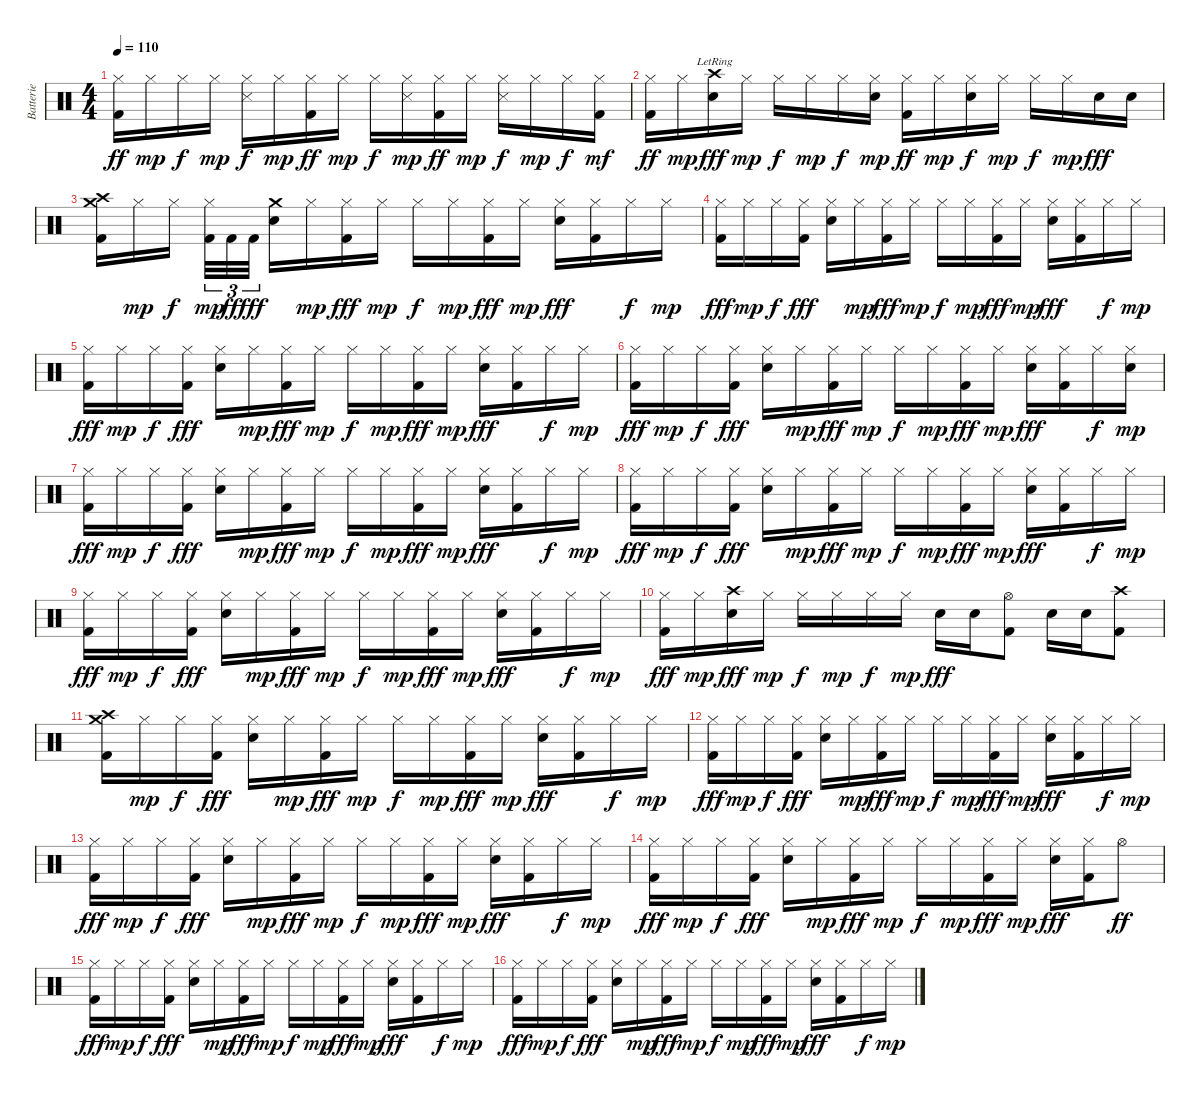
\track ("Batterie" "Batterie") {instrument percussion}
\staff {score}
\articulation defaults
\ts (4 4)
\tempo 110
\clef neutral
\ks c
("Hi-Hat (closed)" "Kick (hit) 2").16{dy ff} "Hi-Hat (closed)".16{dy mp} "Hi-Hat (closed)".16{dy f} "Hi-Hat (closed)".16{dy mp} ("Hi-Hat (closed)" "Snare (side stick) 3").16{dy f} "Hi-Hat (closed)".16{dy mp} ("Hi-Hat (closed)" "Kick (hit) 2").16{dy ff} "Hi-Hat (closed)".16{dy mp} "Hi-Hat (closed)".16{dy f} ("Hi-Hat (closed)" "Snare (side stick) 3").16{dy mp} ("Hi-Hat (closed)" "Kick (hit) 2").16{dy ff} "Hi-Hat (closed)".16{dy mp} ("Hi-Hat (closed)" "Snare (side stick) 3").16{dy f} "Hi-Hat (closed)".16{dy mp} "Hi-Hat (closed)".16{dy f} ("Hi-Hat (closed)" "Kick (hit) 2").16{dy mf} |
("Hi-Hat (closed)" "Kick (hit) 2").16{dy ff} "Hi-Hat (closed)".16{dy mp} ("Crash high (hit)"{lr} "Snare (hit) 2").16{dy fff} "Hi-Hat (closed)".16{dy mp} "Hi-Hat (closed)".16{dy f} "Hi-Hat (closed)".16{dy mp} "Hi-Hat (closed)".16{dy f} ("Hi-Hat (closed)" "Snare (hit) 2").16{dy mp} ("Hi-Hat (closed)" "Kick (hit) 2").16{dy ff} "Hi-Hat (closed)".16{dy mp} ("Hi-Hat (closed)" "Snare (hit) 2").16{dy f} "Hi-Hat (closed)".16{dy mp} "Hi-Hat (closed)".16{dy f} "Hi-Hat (closed)".16{dy mp} "Snare (hit) 2".16{dy fff} "Snare (hit) 2".16 |
("Crash medium (hit)" "Crash high (hit)" "Kick (hit) 2").16 "Hi-Hat (closed)".16{dy mp} "Hi-Hat (closed)".16{dy f} ("Hi-Hat (closed)" "Kick (hit) 2").32{tu (3 2) dy mp} "Kick (hit) 2".32{tu (3 2) dy ff} "Kick (hit) 2".32{tu (3 2) dy fff} ("Crash medium (hit)" "Snare (hit) 2").16 "Hi-Hat (closed)".16{dy mp} ("Hi-Hat (closed)" "Kick (hit) 2").16{dy fff} "Hi-Hat (closed)".16{dy mp} "Hi-Hat (closed)".16{dy f} "Hi-Hat (closed)".16{dy mp} ("Hi-Hat (closed)" "Kick (hit) 2").16{dy fff} "Hi-Hat (closed)".16{dy mp} ("Hi-Hat (closed)" "Snare (hit) 2").16{dy fff} ("Hi-Hat (closed)" "Kick (hit) 2").16 "Hi-Hat (closed)".16{dy f} "Hi-Hat (closed)".16{dy mp} |
("Hi-Hat (closed)" "Kick (hit) 2").16{dy fff} "Hi-Hat (closed)".16{dy mp} "Hi-Hat (closed)".16{dy f} ("Hi-Hat (closed)" "Kick (hit) 2").16{dy fff} ("Hi-Hat (closed)" "Snare (hit) 2").16 "Hi-Hat (closed)".16{dy mp} ("Hi-Hat (closed)" "Kick (hit) 2").16{dy fff} "Hi-Hat (closed)".16{dy mp} "Hi-Hat (closed)".16{dy f} "Hi-Hat (closed)".16{dy mp} ("Hi-Hat (closed)" "Kick (hit) 2").16{dy fff} "Hi-Hat (closed)".16{dy mp} ("Hi-Hat (closed)" "Snare (hit) 2").16{dy fff} ("Hi-Hat (closed)" "Kick (hit) 2").16 "Hi-Hat (closed)".16{dy f} "Hi-Hat (closed)".16{dy mp} |
("Hi-Hat (closed)" "Kick (hit) 2").16{dy fff} "Hi-Hat (closed)".16{dy mp} "Hi-Hat (closed)".16{dy f} ("Hi-Hat (closed)" "Kick (hit) 2").16{dy fff} ("Hi-Hat (closed)" "Snare (hit) 2").16 "Hi-Hat (closed)".16{dy mp} ("Hi-Hat (closed)" "Kick (hit) 2").16{dy fff} "Hi-Hat (closed)".16{dy mp} "Hi-Hat (closed)".16{dy f} "Hi-Hat (closed)".16{dy mp} ("Hi-Hat (closed)" "Kick (hit) 2").16{dy fff} "Hi-Hat (closed)".16{dy mp} ("Hi-Hat (closed)" "Snare (hit) 2").16{dy fff} ("Hi-Hat (closed)" "Kick (hit) 2").16 "Hi-Hat (closed)".16{dy f} "Hi-Hat (closed)".16{dy mp} |
("Hi-Hat (closed)" "Kick (hit) 2").16{dy fff} "Hi-Hat (closed)".16{dy mp} "Hi-Hat (closed)".16{dy f} ("Hi-Hat (closed)" "Kick (hit) 2").16{dy fff} ("Hi-Hat (closed)" "Snare (hit) 2").16 "Hi-Hat (closed)".16{dy mp} ("Hi-Hat (closed)" "Kick (hit) 2").16{dy fff} "Hi-Hat (closed)".16{dy mp} "Hi-Hat (closed)".16{dy f} "Hi-Hat (closed)".16{dy mp} ("Hi-Hat (closed)" "Kick (hit) 2").16{dy fff} "Hi-Hat (closed)".16{dy mp} ("Hi-Hat (closed)" "Snare (hit) 2").16{dy fff} ("Hi-Hat (closed)" "Kick (hit) 2").16 "Hi-Hat (closed)".16{dy f} ("Hi-Hat (closed)" "Snare (hit) 2").16{dy mp} |
("Hi-Hat (closed)" "Kick (hit) 2").16{dy fff} "Hi-Hat (closed)".16{dy mp} "Hi-Hat (closed)".16{dy f} ("Hi-Hat (closed)" "Kick (hit) 2").16{dy fff} ("Hi-Hat (closed)" "Snare (hit) 2").16 "Hi-Hat (closed)".16{dy mp} ("Hi-Hat (closed)" "Kick (hit) 2").16{dy fff} "Hi-Hat (closed)".16{dy mp} "Hi-Hat (closed)".16{dy f} "Hi-Hat (closed)".16{dy mp} ("Hi-Hat (closed)" "Kick (hit) 2").16{dy fff} "Hi-Hat (closed)".16{dy mp} ("Hi-Hat (closed)" "Snare (hit) 2").16{dy fff} ("Hi-Hat (closed)" "Kick (hit) 2").16 "Hi-Hat (closed)".16{dy f} "Hi-Hat (closed)".16{dy mp} |
("Hi-Hat (closed)" "Kick (hit) 2").16{dy fff} "Hi-Hat (closed)".16{dy mp} "Hi-Hat (closed)".16{dy f} ("Hi-Hat (closed)" "Kick (hit) 2").16{dy fff} ("Hi-Hat (closed)" "Snare (hit) 2").16 "Hi-Hat (closed)".16{dy mp} ("Hi-Hat (closed)" "Kick (hit) 2").16{dy fff} "Hi-Hat (closed)".16{dy mp} "Hi-Hat (closed)".16{dy f} "Hi-Hat (closed)".16{dy mp} ("Hi-Hat (closed)" "Kick (hit) 2").16{dy fff} "Hi-Hat (closed)".16{dy mp} ("Hi-Hat (closed)" "Snare (hit) 2").16{dy fff} ("Hi-Hat (closed)" "Kick (hit) 2").16 "Hi-Hat (closed)".16{dy f} "Hi-Hat (closed)".16{dy mp} |
("Hi-Hat (closed)" "Kick (hit) 2").16{dy fff} "Hi-Hat (closed)".16{dy mp} "Hi-Hat (closed)".16{dy f} ("Hi-Hat (closed)" "Kick (hit) 2").16{dy fff} ("Hi-Hat (closed)" "Snare (hit) 2").16 "Hi-Hat (closed)".16{dy mp} ("Hi-Hat (closed)" "Kick (hit) 2").16{dy fff} "Hi-Hat (closed)".16{dy mp} "Hi-Hat (closed)".16{dy f} "Hi-Hat (closed)".16{dy mp} ("Hi-Hat (closed)" "Kick (hit) 2").16{dy fff} "Hi-Hat (closed)".16{dy mp} ("Hi-Hat (closed)" "Snare (hit) 2").16{dy fff} ("Hi-Hat (closed)" "Kick (hit) 2").16 "Hi-Hat (closed)".16{dy f} "Hi-Hat (closed)".16{dy mp} |
("Hi-Hat (closed)" "Kick (hit) 2").16{dy fff} "Hi-Hat (closed)".16{dy mp} ("Crash high (hit)" "Snare (hit) 2").16{dy fff} "Hi-Hat (closed)".16{dy mp} "Hi-Hat (closed)".16{dy f} "Hi-Hat (closed)".16{dy mp} "Hi-Hat (closed)".16{dy f} "Hi-Hat (closed)".16{dy mp} "Snare (hit) 2".16{dy fff} "Snare (hit) 2".16 ("Hi-Hat (open)" "Kick (hit) 2").8 "Snare (hit) 2".16 "Snare (hit) 2".16 ("Crash high (hit)" "Kick (hit) 2").8 |
("Crash medium (hit)" "Crash high (hit)" "Kick (hit) 2").16 "Hi-Hat (closed)".16{dy mp} "Hi-Hat (closed)".16{dy f} ("Hi-Hat (closed)" "Kick (hit) 2").16{dy fff} ("Hi-Hat (closed)" "Snare (hit) 2").16 "Hi-Hat (closed)".16{dy mp} ("Hi-Hat (closed)" "Kick (hit) 2").16{dy fff} "Hi-Hat (closed)".16{dy mp} "Hi-Hat (closed)".16{dy f} "Hi-Hat (closed)".16{dy mp} ("Hi-Hat (closed)" "Kick (hit) 2").16{dy fff} "Hi-Hat (closed)".16{dy mp} ("Hi-Hat (closed)" "Snare (hit) 2").16{dy fff} ("Hi-Hat (closed)" "Kick (hit) 2").16 "Hi-Hat (closed)".16{dy f} "Hi-Hat (closed)".16{dy mp} |
("Hi-Hat (closed)" "Kick (hit) 2").16{dy fff} "Hi-Hat (closed)".16{dy mp} "Hi-Hat (closed)".16{dy f} ("Hi-Hat (closed)" "Kick (hit) 2").16{dy fff} ("Hi-Hat (closed)" "Snare (hit) 2").16 "Hi-Hat (closed)".16{dy mp} ("Hi-Hat (closed)" "Kick (hit) 2").16{dy fff} "Hi-Hat (closed)".16{dy mp} "Hi-Hat (closed)".16{dy f} "Hi-Hat (closed)".16{dy mp} ("Hi-Hat (closed)" "Kick (hit) 2").16{dy fff} "Hi-Hat (closed)".16{dy mp} ("Hi-Hat (closed)" "Snare (hit) 2").16{dy fff} ("Hi-Hat (closed)" "Kick (hit) 2").16 "Hi-Hat (closed)".16{dy f} "Hi-Hat (closed)".16{dy mp} |
("Hi-Hat (closed)" "Kick (hit) 2").16{dy fff} "Hi-Hat (closed)".16{dy mp} "Hi-Hat (closed)".16{dy f} ("Hi-Hat (closed)" "Kick (hit) 2").16{dy fff} ("Hi-Hat (closed)" "Snare (hit) 2").16 "Hi-Hat (closed)".16{dy mp} ("Hi-Hat (closed)" "Kick (hit) 2").16{dy fff} "Hi-Hat (closed)".16{dy mp} "Hi-Hat (closed)".16{dy f} "Hi-Hat (closed)".16{dy mp} ("Hi-Hat (closed)" "Kick (hit) 2").16{dy fff} "Hi-Hat (closed)".16{dy mp} ("Hi-Hat (closed)" "Snare (hit) 2").16{dy fff} ("Hi-Hat (closed)" "Kick (hit) 2").16 "Hi-Hat (closed)".16{dy f} "Hi-Hat (closed)".16{dy mp} |
("Hi-Hat (closed)" "Kick (hit) 2").16{dy fff} "Hi-Hat (closed)".16{dy mp} "Hi-Hat (closed)".16{dy f} ("Hi-Hat (closed)" "Kick (hit) 2").16{dy fff} ("Hi-Hat (closed)" "Snare (hit) 2").16 "Hi-Hat (closed)".16{dy mp} ("Hi-Hat (closed)" "Kick (hit) 2").16{dy fff} "Hi-Hat (closed)".16{dy mp} "Hi-Hat (closed)".16{dy f} "Hi-Hat (closed)".16{dy mp} ("Hi-Hat (closed)" "Kick (hit) 2").16{dy fff} "Hi-Hat (closed)".16{dy mp} ("Hi-Hat (closed)" "Snare (hit) 2").16{dy fff} ("Hi-Hat (closed)" "Kick (hit) 2").16 "Hi-Hat (open)".8{dy ff} |
("Hi-Hat (closed)" "Kick (hit) 2").16{dy fff} "Hi-Hat (closed)".16{dy mp} "Hi-Hat (closed)".16{dy f} ("Hi-Hat (closed)" "Kick (hit) 2").16{dy fff} ("Hi-Hat (closed)" "Snare (hit) 2").16 "Hi-Hat (closed)".16{dy mp} ("Hi-Hat (closed)" "Kick (hit) 2").16{dy fff} "Hi-Hat (closed)".16{dy mp} "Hi-Hat (closed)".16{dy f} "Hi-Hat (closed)".16{dy mp} ("Hi-Hat (closed)" "Kick (hit) 2").16{dy fff} "Hi-Hat (closed)".16{dy mp} ("Hi-Hat (closed)" "Snare (hit) 2").16{dy fff} ("Hi-Hat (closed)" "Kick (hit) 2").16 "Hi-Hat (closed)".16{dy f} "Hi-Hat (closed)".16{dy mp} |
("Hi-Hat (closed)" "Kick (hit) 2").16{dy fff} "Hi-Hat (closed)".16{dy mp} "Hi-Hat (closed)".16{dy f} ("Hi-Hat (closed)" "Kick (hit) 2").16{dy fff} ("Hi-Hat (closed)" "Snare (hit) 2").16 "Hi-Hat (closed)".16{dy mp} ("Hi-Hat (closed)" "Kick (hit) 2").16{dy fff} "Hi-Hat (closed)".16{dy mp} "Hi-Hat (closed)".16{dy f} "Hi-Hat (closed)".16{dy mp} ("Hi-Hat (closed)" "Kick (hit) 2").16{dy fff} "Hi-Hat (closed)".16{dy mp} ("Hi-Hat (closed)" "Snare (hit) 2").16{dy fff} ("Hi-Hat (closed)" "Kick (hit) 2").16 "Hi-Hat (closed)".16{dy f} "Hi-Hat (closed)".16{dy mp}
